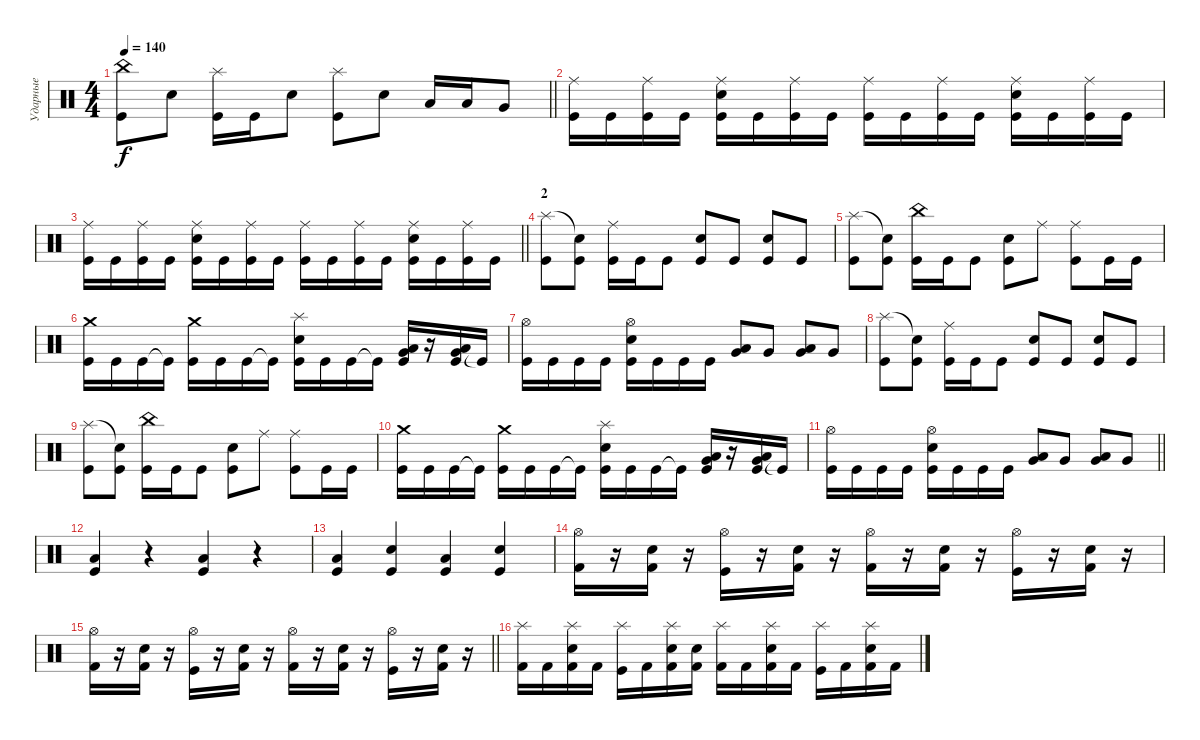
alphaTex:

\track ("Ударные" "Ударные") {instrument percussion}
\staff {score}
\articulation defaults
\ts (4 4)
\tempo 140
\clef neutral
\barLineRight lightlight
\ks c
("China (hit)" "Kick (hit)").8{dy f} "Electric Snare (hit)".8 ("Splash (hit)" "Kick (hit)").16 "Kick (hit)".16 "Electric Snare (hit)".8 ("Splash (hit)" "Kick (hit)").8 "Electric Snare (hit)".8 "Low Tom (hit)".16 "Low Tom (hit)".16 "Very Low Tom (hit)".8 |
("Ride (middle)" "Kick (hit)").16 "Kick (hit)".16 ("Ride (middle)" "Kick (hit)").16 "Kick (hit)".16 ("Ride (middle)" "Electric Snare (hit)" "Kick (hit)").16 "Kick (hit)".16 ("Ride (middle)" "Kick (hit)").16 "Kick (hit)".16 ("Ride (middle)" "Kick (hit)").16 "Kick (hit)".16 ("Ride (middle)" "Kick (hit)").16 "Kick (hit)".16 ("Ride (middle)" "Electric Snare (hit)" "Kick (hit)").16 "Kick (hit)".16 ("Ride (middle)" "Kick (hit)").16 "Kick (hit)".16 |
\barLineRight lightlight
("Ride (middle)" "Kick (hit)").16 "Kick (hit)".16 ("Ride (middle)" "Kick (hit)").16 "Kick (hit)".16 ("Ride (middle)" "Electric Snare (hit)" "Kick (hit)").16 "Kick (hit)".16 ("Ride (middle)" "Kick (hit)").16 "Kick (hit)".16 ("Ride (middle)" "Kick (hit)").16 "Kick (hit)".16 ("Ride (middle)" "Kick (hit)").16 "Kick (hit)".16 ("Ride (middle)" "Electric Snare (hit)" "Kick (hit)").16 "Kick (hit)".16 ("Ride (middle)" "Kick (hit)").16 "Kick (hit)".16 |
\section ("" "2")
("Splash (hit)" "Kick (hit)").8 ("Snare (hit)"{t} "Kick (hit)").8 ("Ride (middle)" "Kick (hit)").16 "Kick (hit)".16 "Kick (hit)".8 ("Electric Snare (hit)" "Kick (hit)").8 "Kick (hit)".8 ("Electric Snare (hit)" "Kick (hit)").8 "Kick (hit)".8 |
("Splash (hit)" "Kick (hit)").8 ("Snare (hit)"{t} "Kick (hit)").8 ("China (hit)" "Kick (hit)").16 "Kick (hit)".16 "Kick (hit)".8 ("Electric Snare (hit)" "Kick (hit)").8 "Ride (middle)".8 ("Ride (middle)" "Kick (hit)").8 "Kick (hit)".16 "Kick (hit)".16 |
("Crash medium (hit)" "Kick (hit)").16 "Kick (hit)".16 "Kick (hit)".16 "Kick (hit)"{t}.16 ("Crash medium (hit)" "Kick (hit)").16 "Kick (hit)".16 "Kick (hit)".16 "Kick (hit)"{t}.16 ("Splash (hit)" "Electric Snare (hit)" "Kick (hit)").16 "Kick (hit)".16 "Kick (hit)".16 "Kick (hit)"{t}.16 ("Low Tom (hit)" "Very Low Tom (hit)" "Kick (hit)").16 r.16 ("Low Tom (hit)" "Very Low Tom (hit)" "Kick (hit)").16 "Kick (hit)"{t}.16 |
("Hi-Hat (open)" "Kick (hit)").16 "Kick (hit)".16 "Kick (hit)".16 "Kick (hit)".16 ("Hi-Hat (open)" "Electric Snare (hit)" "Kick (hit)").16 "Kick (hit)".16 "Kick (hit)".16 "Kick (hit)".16 ("Very Low Tom (hit)" "Low Floor Tom (hit)").8 "Very Low Tom (hit)".8 ("Very Low Tom (hit)" "Low Floor Tom (hit)").8 "Very Low Tom (hit)".8 |
("Splash (hit)" "Kick (hit)").8 ("Snare (hit)"{t} "Kick (hit)").8 ("Ride (middle)" "Kick (hit)").16 "Kick (hit)".16 "Kick (hit)".8 ("Electric Snare (hit)" "Kick (hit)").8 "Kick (hit)".8 ("Electric Snare (hit)" "Kick (hit)").8 "Kick (hit)".8 |
("Splash (hit)" "Kick (hit)").8 ("Snare (hit)"{t} "Kick (hit)").8 ("China (hit)" "Kick (hit)").16 "Kick (hit)".16 "Kick (hit)".8 ("Electric Snare (hit)" "Kick (hit)").8 "Ride (middle)".8 ("Ride (middle)" "Kick (hit)").8 "Kick (hit)".16 "Kick (hit)".16 |
("Crash medium (hit)" "Kick (hit)").16 "Kick (hit)".16 "Kick (hit)".16 "Kick (hit)"{t}.16 ("Crash medium (hit)" "Kick (hit)").16 "Kick (hit)".16 "Kick (hit)".16 "Kick (hit)"{t}.16 ("Splash (hit)" "Electric Snare (hit)" "Kick (hit)").16 "Kick (hit)".16 "Kick (hit)".16 "Kick (hit)"{t}.16 ("Low Tom (hit)" "Very Low Tom (hit)" "Kick (hit)").16 r.16 ("Low Tom (hit)" "Very Low Tom (hit)" "Kick (hit)").16 "Kick (hit)"{t}.16 |
\barLineRight lightlight
("Hi-Hat (open)" "Kick (hit)").16 "Kick (hit)".16 "Kick (hit)".16 "Kick (hit)".16 ("Hi-Hat (open)" "Electric Snare (hit)" "Kick (hit)").16 "Kick (hit)".16 "Kick (hit)".16 "Kick (hit)".16 ("Very Low Tom (hit)" "Low Floor Tom (hit)").8 "Very Low Tom (hit)".8 ("Very Low Tom (hit)" "Low Floor Tom (hit)").8 "Very Low Tom (hit)".8 |
\section ("" "")
("Low Floor Tom (hit)" "Kick (hit)").4 r.4 ("Low Floor Tom (hit)" "Kick (hit)").4 r.4 |
("Low Floor Tom (hit)" "Kick (hit)").4 ("Electric Snare (hit)" "Kick (hit)").4 ("Low Floor Tom (hit)" "Kick (hit)").4 ("Electric Snare (hit)" "Kick (hit)").4 |
("Hi-Hat (open)" "Kick (hit) 2").16 r.16 ("Electric Snare (hit)" "Kick (hit) 2").16 r.16 ("Hi-Hat (open)" "Kick (hit)").16 r.16 ("Electric Snare (hit)" "Kick (hit) 2").16 r.16 ("Hi-Hat (open)" "Kick (hit) 2").16 r.16 ("Electric Snare (hit)" "Kick (hit) 2").16 r.16 ("Hi-Hat (open)" "Kick (hit)").16 r.16 ("Electric Snare (hit)" "Kick (hit) 2").16 r.16 |
\barLineRight lightlight
("Hi-Hat (open)" "Kick (hit) 2").16 r.16 ("Electric Snare (hit)" "Kick (hit) 2").16 r.16 ("Hi-Hat (open)" "Kick (hit)").16 r.16 ("Electric Snare (hit)" "Kick (hit) 2").16 r.16 ("Hi-Hat (open)" "Kick (hit) 2").16 r.16 ("Electric Snare (hit)" "Kick (hit) 2").16 r.16 ("Hi-Hat (open)" "Kick (hit)").16 r.16 ("Electric Snare (hit)" "Kick (hit) 2").16 r.16 |
("Splash (hit)" "Kick (hit) 2").16 "Kick (hit) 2".16 ("Splash (hit)" "Electric Snare (hit)" "Kick (hit) 2").16 "Kick (hit) 2".16 ("Splash (hit)" "Kick (hit)").16 "Kick (hit) 2".16 ("Splash (hit)" "Electric Snare (hit)" "Kick (hit) 2").16 ("Electric Snare (hit)" "Kick (hit) 2").16 ("Splash (hit)" "Kick (hit) 2").16 "Kick (hit) 2".16 ("Splash (hit)" "Electric Snare (hit)" "Kick (hit) 2").16 "Kick (hit) 2".16 ("Splash (hit)" "Kick (hit)").16 "Kick (hit) 2".16 ("Splash (hit)" "Electric Snare (hit)" "Kick (hit) 2").16 "Kick (hit) 2".16
